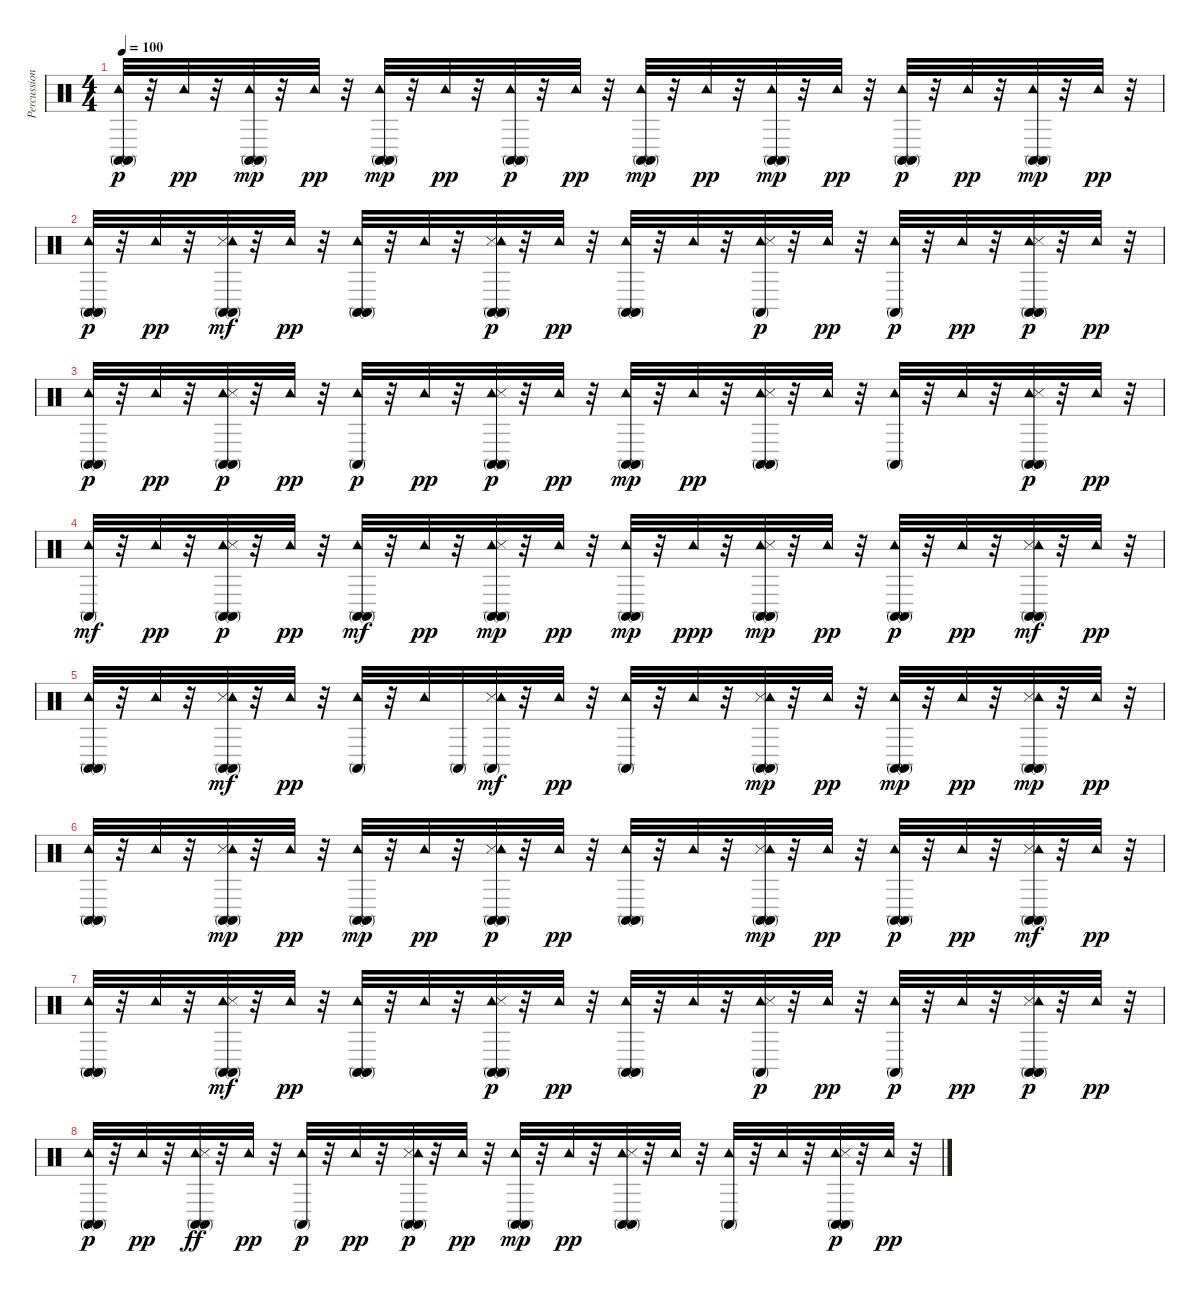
\track ("Percussions" "Percussion") {instrument percussion}
\staff {score}
\articulation defaults
\ts (4 4)
\tempo 100
\clef neutral
\ks c
("Conga high (mute)" "Tambourine (hit)" "Conga high (mute)").32{dy p} r.32 "Tambourine (hit)".32{dy pp} r.32 ("Conga high (mute)" "Tambourine (hit)" "Conga high (mute)").32{dy mp} r.32 "Tambourine (hit)".32{dy pp} r.32 ("Conga high (mute)" "Tambourine (hit)" "Conga high (mute)").32{dy mp} r.32 "Tambourine (hit)".32{dy pp} r.32 ("Conga high (mute)" "Tambourine (hit)" "Conga high (mute)").32{dy p} r.32 "Tambourine (hit)".32{dy pp} r.32 ("Conga high (mute)" "Tambourine (hit)" "Conga high (mute)").32{dy mp} r.32 "Tambourine (hit)".32{dy pp} r.32 ("Conga high (mute)" "Tambourine (hit)" "Conga high (mute)").32{dy mp} r.32 "Tambourine (hit)".32{dy pp} r.32 ("Conga high (mute)" "Tambourine (hit)" "Conga high (mute)").32{dy p} r.32 "Tambourine (hit)".32{dy pp} r.32 ("Conga high (mute)" "Conga high (mute)" "Tambourine (hit)").32{dy mp} r.32 "Tambourine (hit)".32{dy pp} r.32 |
("Conga high (mute)" "Conga high (mute)" "Tambourine (hit)").32{dy p} r.32 "Tambourine (hit)".32{dy pp} r.32 ("Conga high (mute)" "Snare (side stick) 3" "Conga high (mute)" "Tambourine (hit)").32{dy mf} r.32 "Tambourine (hit)".32{dy pp} r.32 ("Conga high (mute)" "Conga high (mute)" "Tambourine (hit)").32 r.32 "Tambourine (hit)".32 r.32 ("Conga high (mute)" "Snare (side stick) 3" "Tambourine (hit)" "Conga high (mute)").32{dy p} r.32 "Tambourine (hit)".32{dy pp} r.32 ("Conga high (mute)" "Conga high (mute)" "Tambourine (hit)").32 r.32 "Tambourine (hit)".32 r.32 ("Tambourine (hit)" "Snare (side stick) 3" "Conga high (mute)").32{dy p} r.32 "Tambourine (hit)".32{dy pp} r.32 ("Tambourine (hit)" "Conga high (mute)").32{dy p} r.32 "Tambourine (hit)".32{dy pp} r.32 ("Tambourine (hit)" "Conga high (mute)" "Snare (side stick) 3" "Conga high (mute)").32{dy p} r.32 "Tambourine (hit)".32{dy pp} r.32 |
("Tambourine (hit)" "Conga high (mute)" "Conga high (mute)").32{dy p} r.32 "Tambourine (hit)".32{dy pp} r.32 ("Conga high (mute)" "Tambourine (hit)" "Conga high (mute)" "Snare (side stick) 3").32{dy p} r.32 "Tambourine (hit)".32{dy pp} r.32 ("Tambourine (hit)" "Conga high (mute)").32{dy p} r.32 "Tambourine (hit)".32{dy pp} r.32 ("Tambourine (hit)" "Conga high (mute)" "Snare (side stick) 3" "Conga high (mute)").32{dy p} r.32 "Tambourine (hit)".32{dy pp} r.32 ("Tambourine (hit)" "Conga high (mute)" "Conga high (mute)").32{dy mp} r.32 "Tambourine (hit)".32{dy pp} r.32 ("Tambourine (hit)" "Snare (side stick) 3" "Conga high (mute)" "Conga high (mute)").32 r.32 "Tambourine (hit)".32 r.32 ("Conga high (mute)" "Tambourine (hit)").32 r.32 "Tambourine (hit)".32 r.32 ("Conga high (mute)" "Tambourine (hit)" "Snare (side stick) 3" "Conga high (mute)").32{dy p} r.32 "Tambourine (hit)".32{dy pp} r.32 |
("Tambourine (hit)" "Conga high (mute)").32{dy mf} r.32 "Tambourine (hit)".32{dy pp} r.32 ("Tambourine (hit)" "Conga high (mute)" "Snare (side stick) 3" "Conga high (mute)").32{dy p} r.32 "Tambourine (hit)".32{dy pp} r.32 ("Conga high (mute)" "Tambourine (hit)" "Conga high (mute)").32{dy mf} r.32 "Tambourine (hit)".32{dy pp} r.32 ("Conga high (mute)" "Tambourine (hit)" "Snare (side stick) 3" "Conga high (mute)").32{dy mp} r.32 "Tambourine (hit)".32{dy pp} r.32 ("Conga high (mute)" "Tambourine (hit)" "Conga high (mute)").32{dy mp} r.32 "Tambourine (hit)".32{dy ppp} r.32 ("Conga high (mute)" "Tambourine (hit)" "Snare (side stick) 3" "Conga high (mute)").32{dy mp} r.32 "Tambourine (hit)".32{dy pp} r.32 ("Conga high (mute)" "Tambourine (hit)" "Conga high (mute)").32{dy p} r.32 "Tambourine (hit)".32{dy pp} r.32 ("Conga high (mute)" "Conga high (mute)" "Snare (side stick) 3" "Tambourine (hit)").32{dy mf} r.32 "Tambourine (hit)".32{dy pp} r.32 |
("Conga high (mute)" "Conga high (mute)" "Tambourine (hit)").32 r.32 "Tambourine (hit)".32 r.32 ("Conga high (mute)" "Conga high (mute)" "Snare (side stick) 3" "Tambourine (hit)").32{dy mf} r.32 "Tambourine (hit)".32{dy pp} r.32 ("Conga high (mute)" "Tambourine (hit)").32 r.32 "Tambourine (hit)".32 "Conga high (mute)".32 ("Conga high (mute)" "Snare (side stick) 3" "Tambourine (hit)").32{dy mf} r.32 "Tambourine (hit)".32{dy pp} r.32 ("Conga high (mute)" "Tambourine (hit)").32 r.32 "Tambourine (hit)".32 r.32 ("Conga high (mute)" "Conga high (mute)" "Snare (side stick) 3" "Tambourine (hit)").32{dy mp} r.32 "Tambourine (hit)".32{dy pp} r.32 ("Conga high (mute)" "Tambourine (hit)" "Conga high (mute)").32{dy mp} r.32 "Tambourine (hit)".32{dy pp} r.32 ("Conga high (mute)" "Snare (side stick) 3" "Tambourine (hit)" "Conga high (mute)").32{dy mp} r.32 "Tambourine (hit)".32{dy pp} r.32 |
("Conga high (mute)" "Conga high (mute)" "Tambourine (hit)").32 r.32 "Tambourine (hit)".32 r.32 ("Conga high (mute)" "Snare (side stick) 3" "Tambourine (hit)" "Conga high (mute)").32{dy mp} r.32 "Tambourine (hit)".32{dy pp} r.32 ("Conga high (mute)" "Tambourine (hit)" "Conga high (mute)").32{dy mp} r.32 "Tambourine (hit)".32{dy pp} r.32 ("Conga high (mute)" "Snare (side stick) 3" "Tambourine (hit)" "Conga high (mute)").32{dy p} r.32 "Tambourine (hit)".32{dy pp} r.32 ("Conga high (mute)" "Conga high (mute)" "Tambourine (hit)").32 r.32 "Tambourine (hit)".32 r.32 ("Conga high (mute)" "Snare (side stick) 3" "Tambourine (hit)" "Conga high (mute)").32{dy mp} r.32 "Tambourine (hit)".32{dy pp} r.32 ("Conga high (mute)" "Tambourine (hit)" "Conga high (mute)").32{dy p} r.32 "Tambourine (hit)".32{dy pp} r.32 ("Conga high (mute)" "Conga high (mute)" "Snare (side stick) 3" "Tambourine (hit)").32{dy mf} r.32 "Tambourine (hit)".32{dy pp} r.32 |
("Conga high (mute)" "Conga high (mute)" "Tambourine (hit)").32 r.32 "Tambourine (hit)".32 r.32 ("Conga high (mute)" "Tambourine (hit)" "Snare (side stick) 3" "Conga high (mute)").32{dy mf} r.32 "Tambourine (hit)".32{dy pp} r.32 ("Conga high (mute)" "Conga high (mute)" "Tambourine (hit)").32 r.32 "Tambourine (hit)".32 r.32 ("Conga high (mute)" "Tambourine (hit)" "Conga high (mute)" "Snare (side stick) 3").32{dy p} r.32 "Tambourine (hit)".32{dy pp} r.32 ("Conga high (mute)" "Conga high (mute)" "Tambourine (hit)").32 r.32 "Tambourine (hit)".32 r.32 ("Tambourine (hit)" "Snare (side stick) 3" "Conga high (mute)").32{dy p} r.32 "Tambourine (hit)".32{dy pp} r.32 ("Tambourine (hit)" "Conga high (mute)").32{dy p} r.32 "Tambourine (hit)".32{dy pp} r.32 ("Snare (side stick) 3" "Conga high (mute)" "Tambourine (hit)" "Conga high (mute)").32{dy p} r.32 "Tambourine (hit)".32{dy pp} r.32 |
("Conga high (mute)" "Tambourine (hit)" "Conga high (mute)").32{dy p} r.32 "Tambourine (hit)".32{dy pp} r.32 ("Conga high (mute)" "Conga high (mute)" "Tambourine (hit)" "Snare (side stick) 3").32{dy ff} r.32 "Tambourine (hit)".32{dy pp} r.32 ("Tambourine (hit)" "Conga high (mute)").32{dy p} r.32 "Tambourine (hit)".32{dy pp} r.32 ("Conga high (mute)" "Snare (side stick) 3" "Tambourine (hit)" "Conga high (mute)").32{dy p} r.32 "Tambourine (hit)".32{dy pp} r.32 ("Tambourine (hit)" "Conga high (mute)" "Conga high (mute)").32{dy mp} r.32 "Tambourine (hit)".32{dy pp} r.32 ("Tambourine (hit)" "Snare (side stick) 3" "Conga high (mute)" "Conga high (mute)").32 r.32 "Tambourine (hit)".32 r.32 ("Conga high (mute)" "Tambourine (hit)").32 r.32 "Tambourine (hit)".32 r.32 ("Conga high (mute)" "Tambourine (hit)" "Conga high (mute)" "Snare (side stick) 3").32{dy p} r.32 "Tambourine (hit)".32{dy pp} r.32
